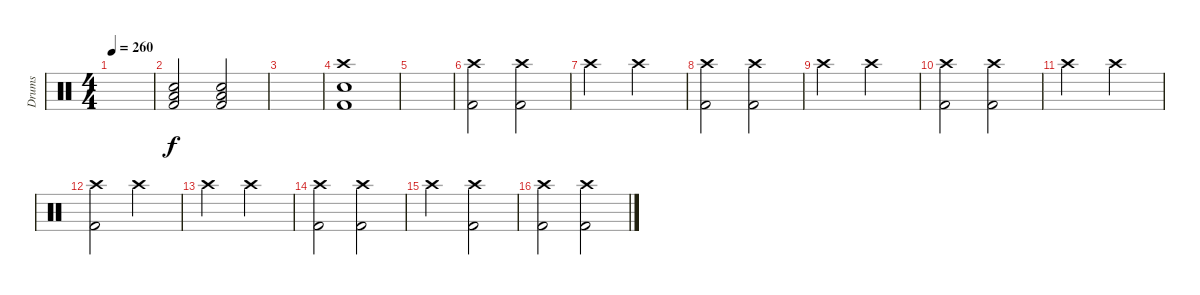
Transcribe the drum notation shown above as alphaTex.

\track ("Drums" "Drums") {instrument percussion}
\staff {score}
\articulation defaults
\ts (4 4)
\tempo 260
\clef neutral
\ks c
|
("Snare (hit) 2" "Low Tom (hit)" "Kick (hit) 2").2 ("Snare (hit) 2" "Low Tom (hit)" "Kick (hit) 2").2 |
|
("Crash high (hit)" "Snare (hit) 2" "Kick (hit) 2").1 |
|
("Crash high (hit)" "Kick (hit) 2").2 ("Crash high (hit)" "Kick (hit) 2").2 |
"Crash high (hit)".2 "Crash high (hit)".2 |
("Crash high (hit)" "Kick (hit) 2").2 ("Crash high (hit)" "Kick (hit) 2").2 |
"Crash high (hit)".2 "Crash high (hit)".2 |
("Crash high (hit)" "Kick (hit) 2").2 ("Crash high (hit)" "Kick (hit) 2").2 |
"Crash high (hit)".2 "Crash high (hit)".2 |
("Crash high (hit)" "Kick (hit) 2").2 "Crash high (hit)".2 |
"Crash high (hit)".2 "Crash high (hit)".2 |
("Crash high (hit)" "Kick (hit) 2").2 ("Crash high (hit)" "Kick (hit) 2").2 |
"Crash high (hit)".2 ("Crash high (hit)" "Kick (hit) 2").2 |
("Crash high (hit)" "Kick (hit) 2").2 ("Crash high (hit)" "Kick (hit) 2").2
